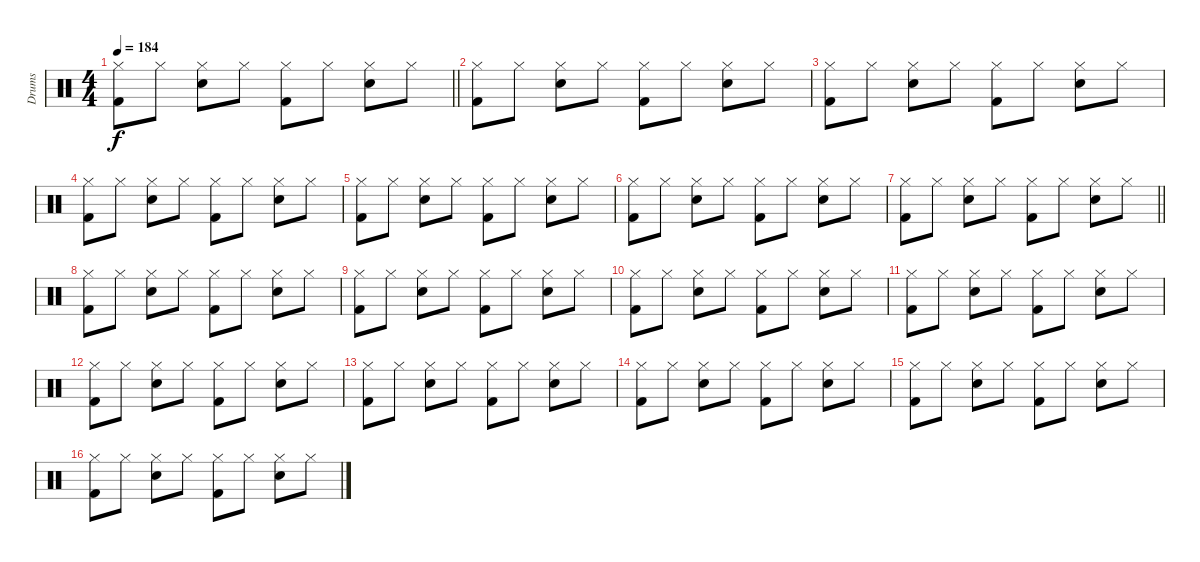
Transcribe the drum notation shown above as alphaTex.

\track ("Drums" "Drums") {instrument percussion}
\staff {score}
\articulation defaults
\ts (4 4)
\tempo 184
\clef neutral
\barLineRight lightlight
\ks c
("Hi-Hat (closed)" "Kick (hit) 2").8{dy f} "Hi-Hat (closed)".8 ("Hi-Hat (closed)" "Snare (hit) 2").8 "Hi-Hat (closed)".8 ("Hi-Hat (closed)" "Kick (hit) 2").8 "Hi-Hat (closed)".8 ("Hi-Hat (closed)" "Snare (hit) 2").8 "Hi-Hat (closed)".8 |
("Hi-Hat (closed)" "Kick (hit) 2").8 "Hi-Hat (closed)".8 ("Hi-Hat (closed)" "Snare (hit) 2").8 "Hi-Hat (closed)".8 ("Hi-Hat (closed)" "Kick (hit) 2").8 "Hi-Hat (closed)".8 ("Hi-Hat (closed)" "Snare (hit) 2").8 "Hi-Hat (closed)".8 |
("Hi-Hat (closed)" "Kick (hit) 2").8 "Hi-Hat (closed)".8 ("Hi-Hat (closed)" "Snare (hit) 2").8 "Hi-Hat (closed)".8 ("Hi-Hat (closed)" "Kick (hit) 2").8 "Hi-Hat (closed)".8 ("Hi-Hat (closed)" "Snare (hit) 2").8 "Hi-Hat (closed)".8 |
("Hi-Hat (closed)" "Kick (hit) 2").8 "Hi-Hat (closed)".8 ("Hi-Hat (closed)" "Snare (hit) 2").8 "Hi-Hat (closed)".8 ("Hi-Hat (closed)" "Kick (hit) 2").8 "Hi-Hat (closed)".8 ("Hi-Hat (closed)" "Snare (hit) 2").8 "Hi-Hat (closed)".8 |
("Hi-Hat (closed)" "Kick (hit) 2").8 "Hi-Hat (closed)".8 ("Hi-Hat (closed)" "Snare (hit) 2").8 "Hi-Hat (closed)".8 ("Hi-Hat (closed)" "Kick (hit) 2").8 "Hi-Hat (closed)".8 ("Hi-Hat (closed)" "Snare (hit) 2").8 "Hi-Hat (closed)".8 |
("Hi-Hat (closed)" "Kick (hit) 2").8 "Hi-Hat (closed)".8 ("Hi-Hat (closed)" "Snare (hit) 2").8 "Hi-Hat (closed)".8 ("Hi-Hat (closed)" "Kick (hit) 2").8 "Hi-Hat (closed)".8 ("Hi-Hat (closed)" "Snare (hit) 2").8 "Hi-Hat (closed)".8 |
\barLineRight lightlight
("Hi-Hat (closed)" "Kick (hit) 2").8 "Hi-Hat (closed)".8 ("Hi-Hat (closed)" "Snare (hit) 2").8 "Hi-Hat (closed)".8 ("Hi-Hat (closed)" "Kick (hit) 2").8 "Hi-Hat (closed)".8 ("Hi-Hat (closed)" "Snare (hit) 2").8 "Hi-Hat (closed)".8 |
("Hi-Hat (closed)" "Kick (hit) 2").8 "Hi-Hat (closed)".8 ("Hi-Hat (closed)" "Snare (hit) 2").8 "Hi-Hat (closed)".8 ("Hi-Hat (closed)" "Kick (hit) 2").8 "Hi-Hat (closed)".8 ("Hi-Hat (closed)" "Snare (hit) 2").8 "Hi-Hat (closed)".8 |
("Hi-Hat (closed)" "Kick (hit) 2").8 "Hi-Hat (closed)".8 ("Hi-Hat (closed)" "Snare (hit) 2").8 "Hi-Hat (closed)".8 ("Hi-Hat (closed)" "Kick (hit) 2").8 "Hi-Hat (closed)".8 ("Hi-Hat (closed)" "Snare (hit) 2").8 "Hi-Hat (closed)".8 |
("Hi-Hat (closed)" "Kick (hit) 2").8 "Hi-Hat (closed)".8 ("Hi-Hat (closed)" "Snare (hit) 2").8 "Hi-Hat (closed)".8 ("Hi-Hat (closed)" "Kick (hit) 2").8 "Hi-Hat (closed)".8 ("Hi-Hat (closed)" "Snare (hit) 2").8 "Hi-Hat (closed)".8 |
("Hi-Hat (closed)" "Kick (hit) 2").8 "Hi-Hat (closed)".8 ("Hi-Hat (closed)" "Snare (hit) 2").8 "Hi-Hat (closed)".8 ("Hi-Hat (closed)" "Kick (hit) 2").8 "Hi-Hat (closed)".8 ("Hi-Hat (closed)" "Snare (hit) 2").8 "Hi-Hat (closed)".8 |
("Hi-Hat (closed)" "Kick (hit) 2").8 "Hi-Hat (closed)".8 ("Hi-Hat (closed)" "Snare (hit) 2").8 "Hi-Hat (closed)".8 ("Hi-Hat (closed)" "Kick (hit) 2").8 "Hi-Hat (closed)".8 ("Hi-Hat (closed)" "Snare (hit) 2").8 "Hi-Hat (closed)".8 |
("Hi-Hat (closed)" "Kick (hit) 2").8 "Hi-Hat (closed)".8 ("Hi-Hat (closed)" "Snare (hit) 2").8 "Hi-Hat (closed)".8 ("Hi-Hat (closed)" "Kick (hit) 2").8 "Hi-Hat (closed)".8 ("Hi-Hat (closed)" "Snare (hit) 2").8 "Hi-Hat (closed)".8 |
("Hi-Hat (closed)" "Kick (hit) 2").8 "Hi-Hat (closed)".8 ("Hi-Hat (closed)" "Snare (hit) 2").8 "Hi-Hat (closed)".8 ("Hi-Hat (closed)" "Kick (hit) 2").8 "Hi-Hat (closed)".8 ("Hi-Hat (closed)" "Snare (hit) 2").8 "Hi-Hat (closed)".8 |
("Hi-Hat (closed)" "Kick (hit) 2").8 "Hi-Hat (closed)".8 ("Hi-Hat (closed)" "Snare (hit) 2").8 "Hi-Hat (closed)".8 ("Hi-Hat (closed)" "Kick (hit) 2").8 "Hi-Hat (closed)".8 ("Hi-Hat (closed)" "Snare (hit) 2").8 "Hi-Hat (closed)".8 |
("Hi-Hat (closed)" "Kick (hit) 2").8 "Hi-Hat (closed)".8 ("Hi-Hat (closed)" "Snare (hit) 2").8 "Hi-Hat (closed)".8 ("Hi-Hat (closed)" "Kick (hit) 2").8 "Hi-Hat (closed)".8 ("Hi-Hat (closed)" "Snare (hit) 2").8 "Hi-Hat (closed)".8
